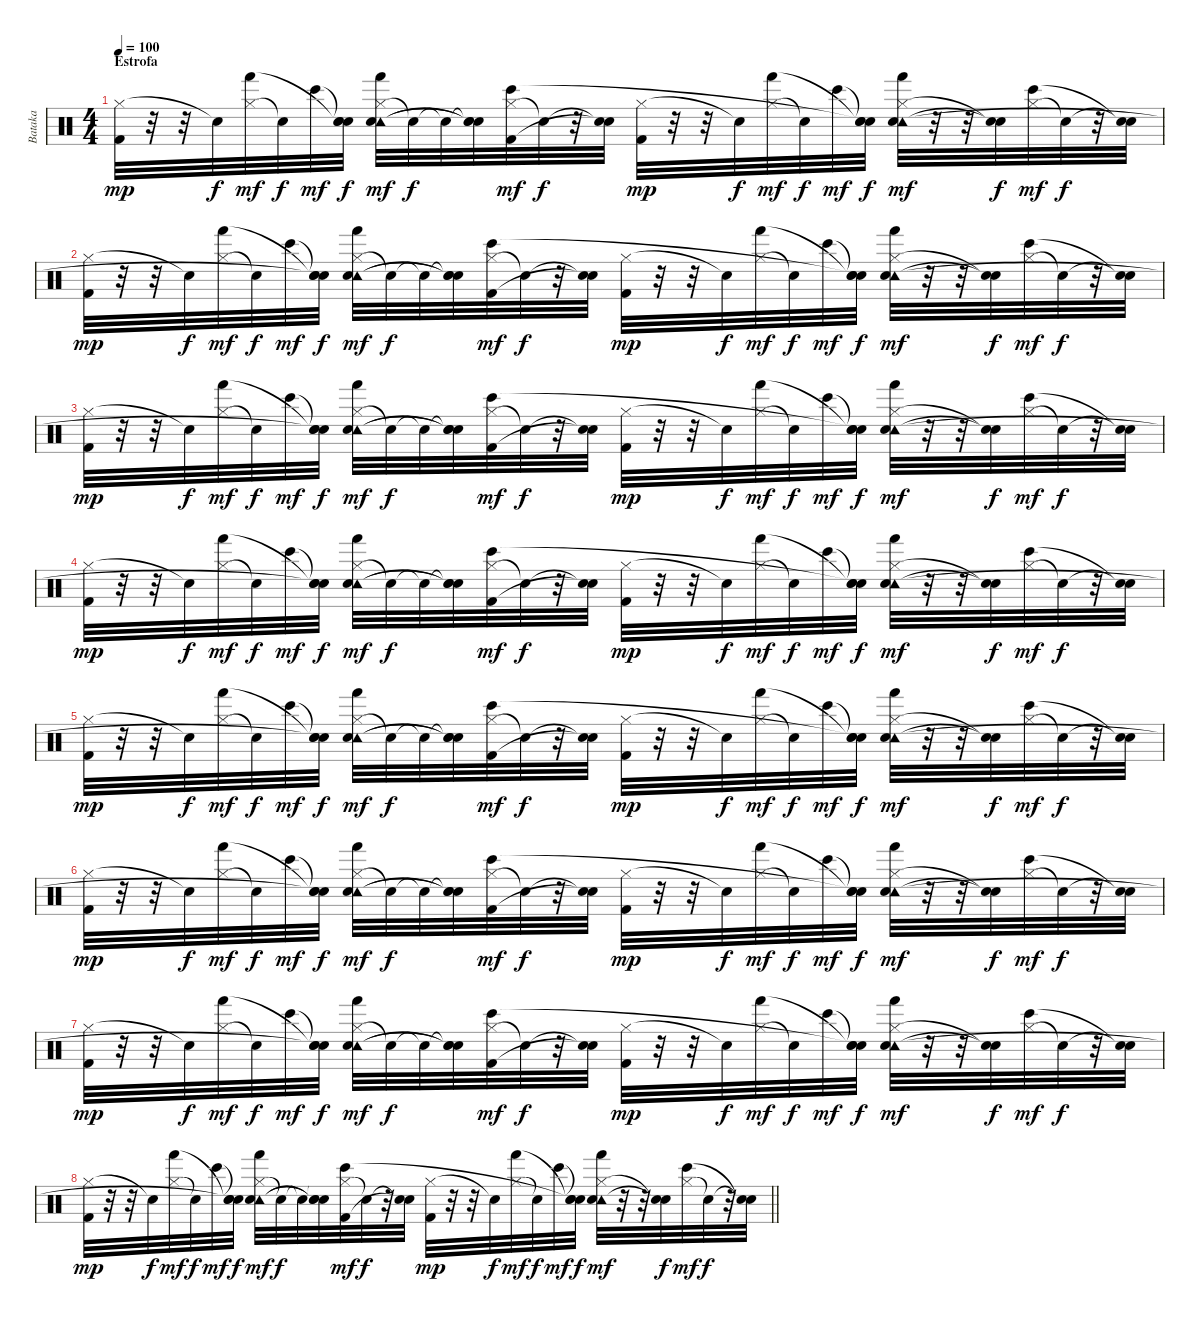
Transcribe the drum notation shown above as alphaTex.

\track ("Bataka" "Bataka") {instrument percussion}
\staff {score}
\articulation defaults
\ts (4 4)
\section ("" "Estrofa")
\tempo 100
\clef neutral
\ks c
("Hi-Hat (closed)" "Kick (hit) 2").32{dy mp} r.32 r.32 "Snare (hit)"{t}.32{dy f} ("Hi-Hat (closed)" "Hand (hit)").32{dy mf} "Snare (hit)"{t}.32{dy f} "Bongo High (hit)".32{dy mf} ("Snare (hit)"{t} "Snare (hit)"{t} "Snare (hit)"{t}).32{dy f} ("Hi-Hat (closed)" "Tambourine (hit)" "Electric Snare (hit)" "Hand (hit)").32{dy mf} "Snare (hit)"{t}.32{dy f} "Snare (hit)"{t}.32 ("Snare (hit)"{t} "Snare (hit)"{t} "Snare (hit)"{t}).32 ("Hi-Hat (closed)" "Kick (hit) 2" "Bongo High (hit)").32{dy mf} "Snare (hit)"{t}.32{dy f} r.32 ("Snare (hit)"{t} "Snare (hit)"{t}).32 ("Hi-Hat (closed)" "Kick (hit) 2").32{dy mp} r.32 r.32 "Snare (hit)"{t}.32{dy f} ("Hi-Hat (closed)" "Hand (hit)").32{dy mf} "Snare (hit)"{t}.32{dy f} "Bongo High (hit)".32{dy mf} ("Snare (hit)"{t} "Snare (hit)"{t} "Snare (hit)"{t}).32{dy f} ("Hi-Hat (closed)" "Tambourine (hit)" "Electric Snare (hit)" "Hand (hit)").32{dy mf} r.32 r.32 ("Snare (hit)"{t} "Snare (hit)"{t}).32{dy f} ("Hi-Hat (closed)" "Bongo High (hit)").32{dy mf} "Snare (hit)"{t}.32{dy f} r.32 ("Snare (hit)"{t} "Snare (hit)"{t}).32 |
("Hi-Hat (closed)" "Kick (hit) 2").32{dy mp} r.32 r.32 "Snare (hit)"{t}.32{dy f} ("Hi-Hat (closed)" "Hand (hit)").32{dy mf} "Snare (hit)"{t}.32{dy f} "Bongo High (hit)".32{dy mf} ("Snare (hit)"{t} "Snare (hit)"{t} "Snare (hit)"{t}).32{dy f} ("Hi-Hat (closed)" "Tambourine (hit)" "Electric Snare (hit)" "Hand (hit)").32{dy mf} "Snare (hit)"{t}.32{dy f} "Snare (hit)"{t}.32 ("Snare (hit)"{t} "Snare (hit)"{t} "Snare (hit)"{t}).32 ("Hi-Hat (closed)" "Kick (hit) 2" "Bongo High (hit)").32{dy mf} "Snare (hit)"{t}.32{dy f} r.32 ("Snare (hit)"{t} "Snare (hit)"{t}).32 ("Hi-Hat (closed)" "Kick (hit) 2").32{dy mp} r.32 r.32 "Snare (hit)"{t}.32{dy f} ("Hi-Hat (closed)" "Hand (hit)").32{dy mf} "Snare (hit)"{t}.32{dy f} "Bongo High (hit)".32{dy mf} ("Snare (hit)"{t} "Snare (hit)"{t} "Snare (hit)"{t}).32{dy f} ("Hi-Hat (closed)" "Tambourine (hit)" "Electric Snare (hit)" "Hand (hit)").32{dy mf} r.32 r.32 ("Snare (hit)"{t} "Snare (hit)"{t}).32{dy f} ("Hi-Hat (closed)" "Bongo High (hit)").32{dy mf} "Snare (hit)"{t}.32{dy f} r.32 ("Snare (hit)"{t} "Snare (hit)"{t}).32 |
("Hi-Hat (closed)" "Kick (hit) 2").32{dy mp} r.32 r.32 "Snare (hit)"{t}.32{dy f} ("Hi-Hat (closed)" "Hand (hit)").32{dy mf} "Snare (hit)"{t}.32{dy f} "Bongo High (hit)".32{dy mf} ("Snare (hit)"{t} "Snare (hit)"{t} "Snare (hit)"{t}).32{dy f} ("Hi-Hat (closed)" "Tambourine (hit)" "Electric Snare (hit)" "Hand (hit)").32{dy mf} "Snare (hit)"{t}.32{dy f} "Snare (hit)"{t}.32 ("Snare (hit)"{t} "Snare (hit)"{t} "Snare (hit)"{t}).32 ("Hi-Hat (closed)" "Kick (hit) 2" "Bongo High (hit)").32{dy mf} "Snare (hit)"{t}.32{dy f} r.32 ("Snare (hit)"{t} "Snare (hit)"{t}).32 ("Hi-Hat (closed)" "Kick (hit) 2").32{dy mp} r.32 r.32 "Snare (hit)"{t}.32{dy f} ("Hi-Hat (closed)" "Hand (hit)").32{dy mf} "Snare (hit)"{t}.32{dy f} "Bongo High (hit)".32{dy mf} ("Snare (hit)"{t} "Snare (hit)"{t} "Snare (hit)"{t}).32{dy f} ("Hi-Hat (closed)" "Tambourine (hit)" "Electric Snare (hit)" "Hand (hit)").32{dy mf} r.32 r.32 ("Snare (hit)"{t} "Snare (hit)"{t}).32{dy f} ("Hi-Hat (closed)" "Bongo High (hit)").32{dy mf} "Snare (hit)"{t}.32{dy f} r.32 ("Snare (hit)"{t} "Snare (hit)"{t}).32 |
("Hi-Hat (closed)" "Kick (hit) 2").32{dy mp} r.32 r.32 "Snare (hit)"{t}.32{dy f} ("Hi-Hat (closed)" "Hand (hit)").32{dy mf} "Snare (hit)"{t}.32{dy f} "Bongo High (hit)".32{dy mf} ("Snare (hit)"{t} "Snare (hit)"{t} "Snare (hit)"{t}).32{dy f} ("Hi-Hat (closed)" "Tambourine (hit)" "Electric Snare (hit)" "Hand (hit)").32{dy mf} "Snare (hit)"{t}.32{dy f} "Snare (hit)"{t}.32 ("Snare (hit)"{t} "Snare (hit)"{t} "Snare (hit)"{t}).32 ("Hi-Hat (closed)" "Kick (hit) 2" "Bongo High (hit)").32{dy mf} "Snare (hit)"{t}.32{dy f} r.32 ("Snare (hit)"{t} "Snare (hit)"{t}).32 ("Hi-Hat (closed)" "Kick (hit) 2").32{dy mp} r.32 r.32 "Snare (hit)"{t}.32{dy f} ("Hi-Hat (closed)" "Hand (hit)").32{dy mf} "Snare (hit)"{t}.32{dy f} "Bongo High (hit)".32{dy mf} ("Snare (hit)"{t} "Snare (hit)"{t} "Snare (hit)"{t}).32{dy f} ("Hi-Hat (closed)" "Tambourine (hit)" "Electric Snare (hit)" "Hand (hit)").32{dy mf} r.32 r.32 ("Snare (hit)"{t} "Snare (hit)"{t}).32{dy f} ("Hi-Hat (closed)" "Bongo High (hit)").32{dy mf} "Snare (hit)"{t}.32{dy f} r.32 ("Snare (hit)"{t} "Snare (hit)"{t}).32 |
("Hi-Hat (closed)" "Kick (hit) 2").32{dy mp} r.32 r.32 "Snare (hit)"{t}.32{dy f} ("Hi-Hat (closed)" "Hand (hit)").32{dy mf} "Snare (hit)"{t}.32{dy f} "Bongo High (hit)".32{dy mf} ("Snare (hit)"{t} "Snare (hit)"{t} "Snare (hit)"{t}).32{dy f} ("Hi-Hat (closed)" "Tambourine (hit)" "Electric Snare (hit)" "Hand (hit)").32{dy mf} "Snare (hit)"{t}.32{dy f} "Snare (hit)"{t}.32 ("Snare (hit)"{t} "Snare (hit)"{t} "Snare (hit)"{t}).32 ("Hi-Hat (closed)" "Kick (hit) 2" "Bongo High (hit)").32{dy mf} "Snare (hit)"{t}.32{dy f} r.32 ("Snare (hit)"{t} "Snare (hit)"{t}).32 ("Hi-Hat (closed)" "Kick (hit) 2").32{dy mp} r.32 r.32 "Snare (hit)"{t}.32{dy f} ("Hi-Hat (closed)" "Hand (hit)").32{dy mf} "Snare (hit)"{t}.32{dy f} "Bongo High (hit)".32{dy mf} ("Snare (hit)"{t} "Snare (hit)"{t} "Snare (hit)"{t}).32{dy f} ("Hi-Hat (closed)" "Tambourine (hit)" "Electric Snare (hit)" "Hand (hit)").32{dy mf} r.32 r.32 ("Snare (hit)"{t} "Snare (hit)"{t}).32{dy f} ("Hi-Hat (closed)" "Bongo High (hit)").32{dy mf} "Snare (hit)"{t}.32{dy f} r.32 ("Snare (hit)"{t} "Snare (hit)"{t}).32 |
("Hi-Hat (closed)" "Kick (hit) 2").32{dy mp} r.32 r.32 "Snare (hit)"{t}.32{dy f} ("Hi-Hat (closed)" "Hand (hit)").32{dy mf} "Snare (hit)"{t}.32{dy f} "Bongo High (hit)".32{dy mf} ("Snare (hit)"{t} "Snare (hit)"{t} "Snare (hit)"{t}).32{dy f} ("Hi-Hat (closed)" "Tambourine (hit)" "Electric Snare (hit)" "Hand (hit)").32{dy mf} "Snare (hit)"{t}.32{dy f} "Snare (hit)"{t}.32 ("Snare (hit)"{t} "Snare (hit)"{t} "Snare (hit)"{t}).32 ("Hi-Hat (closed)" "Kick (hit) 2" "Bongo High (hit)").32{dy mf} "Snare (hit)"{t}.32{dy f} r.32 ("Snare (hit)"{t} "Snare (hit)"{t}).32 ("Hi-Hat (closed)" "Kick (hit) 2").32{dy mp} r.32 r.32 "Snare (hit)"{t}.32{dy f} ("Hi-Hat (closed)" "Hand (hit)").32{dy mf} "Snare (hit)"{t}.32{dy f} "Bongo High (hit)".32{dy mf} ("Snare (hit)"{t} "Snare (hit)"{t} "Snare (hit)"{t}).32{dy f} ("Hi-Hat (closed)" "Tambourine (hit)" "Electric Snare (hit)" "Hand (hit)").32{dy mf} r.32 r.32 ("Snare (hit)"{t} "Snare (hit)"{t}).32{dy f} ("Hi-Hat (closed)" "Bongo High (hit)").32{dy mf} "Snare (hit)"{t}.32{dy f} r.32 ("Snare (hit)"{t} "Snare (hit)"{t}).32 |
("Hi-Hat (closed)" "Kick (hit) 2").32{dy mp} r.32 r.32 "Snare (hit)"{t}.32{dy f} ("Hi-Hat (closed)" "Hand (hit)").32{dy mf} "Snare (hit)"{t}.32{dy f} "Bongo High (hit)".32{dy mf} ("Snare (hit)"{t} "Snare (hit)"{t} "Snare (hit)"{t}).32{dy f} ("Hi-Hat (closed)" "Tambourine (hit)" "Electric Snare (hit)" "Hand (hit)").32{dy mf} "Snare (hit)"{t}.32{dy f} "Snare (hit)"{t}.32 ("Snare (hit)"{t} "Snare (hit)"{t} "Snare (hit)"{t}).32 ("Hi-Hat (closed)" "Kick (hit) 2" "Bongo High (hit)").32{dy mf} "Snare (hit)"{t}.32{dy f} r.32 ("Snare (hit)"{t} "Snare (hit)"{t}).32 ("Hi-Hat (closed)" "Kick (hit) 2").32{dy mp} r.32 r.32 "Snare (hit)"{t}.32{dy f} ("Hi-Hat (closed)" "Hand (hit)").32{dy mf} "Snare (hit)"{t}.32{dy f} "Bongo High (hit)".32{dy mf} ("Snare (hit)"{t} "Snare (hit)"{t} "Snare (hit)"{t}).32{dy f} ("Hi-Hat (closed)" "Tambourine (hit)" "Electric Snare (hit)" "Hand (hit)").32{dy mf} r.32 r.32 ("Snare (hit)"{t} "Snare (hit)"{t}).32{dy f} ("Hi-Hat (closed)" "Bongo High (hit)").32{dy mf} "Snare (hit)"{t}.32{dy f} r.32 ("Snare (hit)"{t} "Snare (hit)"{t}).32 |
\barLineRight lightlight
("Hi-Hat (closed)" "Kick (hit) 2").32{dy mp} r.32 r.32 "Snare (hit)"{t}.32{dy f} ("Hi-Hat (closed)" "Hand (hit)").32{dy mf} "Snare (hit)"{t}.32{dy f} "Bongo High (hit)".32{dy mf} ("Snare (hit)"{t} "Snare (hit)"{t} "Snare (hit)"{t}).32{dy f} ("Hi-Hat (closed)" "Tambourine (hit)" "Electric Snare (hit)" "Hand (hit)").32{dy mf} "Snare (hit)"{t}.32{dy f} "Snare (hit)"{t}.32 ("Snare (hit)"{t} "Snare (hit)"{t} "Snare (hit)"{t}).32 ("Hi-Hat (closed)" "Kick (hit) 2" "Bongo High (hit)").32{dy mf} "Snare (hit)"{t}.32{dy f} r.32 ("Snare (hit)"{t} "Snare (hit)"{t}).32 ("Hi-Hat (closed)" "Kick (hit) 2").32{dy mp} r.32 r.32 "Snare (hit)"{t}.32{dy f} ("Hi-Hat (closed)" "Hand (hit)").32{dy mf} "Snare (hit)"{t}.32{dy f} "Bongo High (hit)".32{dy mf} ("Snare (hit)"{t} "Snare (hit)"{t} "Snare (hit)"{t}).32{dy f} ("Hi-Hat (closed)" "Tambourine (hit)" "Electric Snare (hit)" "Hand (hit)").32{dy mf} r.32 r.32 ("Snare (hit)"{t} "Snare (hit)"{t}).32{dy f} ("Hi-Hat (closed)" "Bongo High (hit)").32{dy mf} "Snare (hit)"{t}.32{dy f} r.32 ("Snare (hit)"{t} "Snare (hit)"{t}).32
